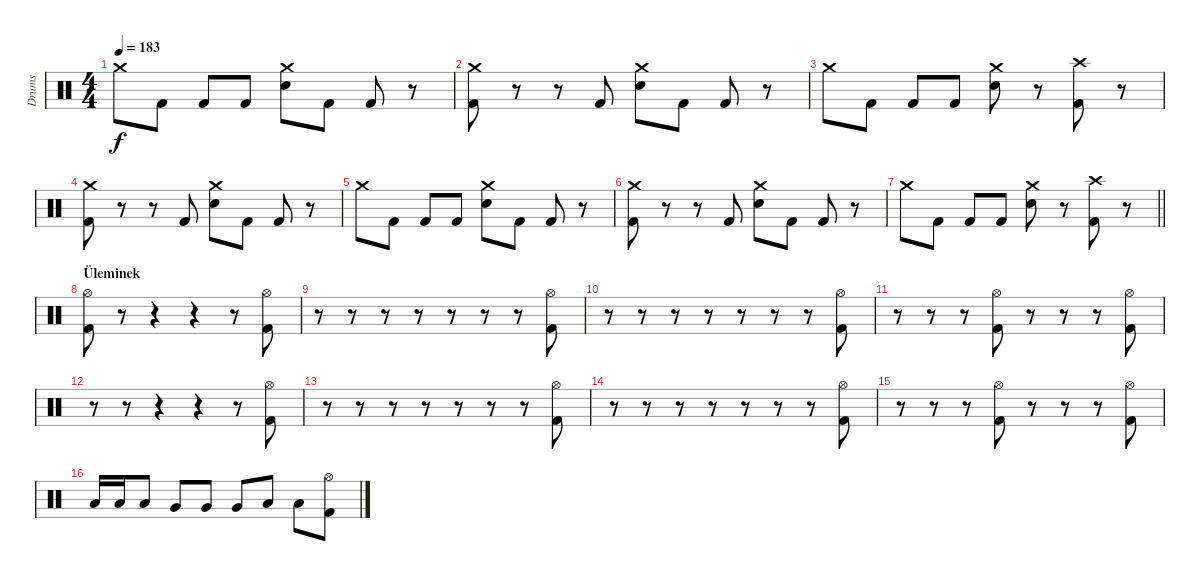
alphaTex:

\track ("Drums" "Drums") {instrument percussion}
\staff {score}
\articulation defaults
\ts (4 4)
\tempo 183
\clef neutral
\ks c "Crash medium (hit)".8{dy f} "Kick (hit) 2".8 "Kick (hit) 2".8 "Kick (hit) 2".8
("Crash medium (hit)" "Electric Snare (hit)").8 "Kick (hit) 2".8 "Kick (hit) 2".8 r.8 |
("Crash medium (hit)" "Kick (hit) 2").8 r.8 r.8 "Kick (hit) 2".8 ("Crash medium (hit)" "Electric Snare (hit)").8 "Kick (hit) 2".8 "Kick (hit) 2".8 r.8 |
"Crash medium (hit)".8 "Kick (hit) 2".8 "Kick (hit) 2".8 "Kick (hit) 2".8 ("Crash medium (hit)" "Electric Snare (hit)").8 r.8 ("Crash high (hit)" "Kick (hit) 2").8 r.8 |
("Crash medium (hit)" "Kick (hit) 2").8 r.8 r.8 "Kick (hit) 2".8 ("Crash medium (hit)" "Electric Snare (hit)").8 "Kick (hit) 2".8 "Kick (hit) 2".8 r.8 |
"Crash medium (hit)".8 "Kick (hit) 2".8 "Kick (hit) 2".8 "Kick (hit) 2".8 ("Crash medium (hit)" "Electric Snare (hit)").8 "Kick (hit) 2".8 "Kick (hit) 2".8 r.8 |
("Crash medium (hit)" "Kick (hit) 2").8 r.8 r.8 "Kick (hit) 2".8 ("Crash medium (hit)" "Electric Snare (hit)").8 "Kick (hit) 2".8 "Kick (hit) 2".8 r.8 |
\barLineRight lightlight "Crash medium (hit)".8 "Kick (hit) 2".8 "Kick (hit) 2".8 "Kick (hit) 2".8
("Crash medium (hit)" "Electric Snare (hit)").8 r.8 ("Crash high (hit)" "Kick (hit) 2").8 r.8 |
\section ("" "Üleminek")
("Hi-Hat (open)" "Kick (hit) 2").8 r.8 r.4{volume 0} r.4 r.8{volume 14} ("Hi-Hat (open)" "Kick (hit) 2").8 |
r.8 r.8{volume 0} r.8 r.8 r.8 r.8 r.8{volume 14} ("Hi-Hat (open)" "Kick (hit) 2").8 |
r.8 r.8{volume 0} r.8 r.8 r.8 r.8 r.8{volume 14} ("Hi-Hat (open)" "Kick (hit) 2").8 |
r.8 r.8{volume 0} r.8 ("Hi-Hat (open)" "Kick (hit) 2").8{volume 14} r.8 r.8{volume 0} r.8 ("Hi-Hat (open)" "Kick (hit) 2").8{volume 16} |
r.8 r.8 r.4{volume 0} r.4 r.8{volume 14} ("Hi-Hat (open)" "Kick (hit) 2").8 |
r.8 r.8{volume 0} r.8 r.8 r.8 r.8 r.8{volume 14} ("Hi-Hat (open)" "Kick (hit) 2").8 |
r.8 r.8{volume 0} r.8 r.8 r.8 r.8 r.8{volume 14} ("Hi-Hat (open)" "Kick (hit) 2").8 |
r.8 r.8{volume 0} r.8 ("Hi-Hat (open)" "Kick (hit) 2").8{volume 14} r.8 r.8{volume 0} r.8 ("Hi-Hat (open)" "Kick (hit) 2").8{volume 16} |
"Low Tom (hit)".16 "Low Tom (hit)".16 "Low Tom (hit)".8 "Very Low Tom (hit)".8 "Very Low Tom (hit)".8 "Very Low Tom (hit)".8 "Low Floor Tom (hit)".8 "Low Floor Tom (hit)".8 ("Hi-Hat (open)" "Kick (hit) 2").8
